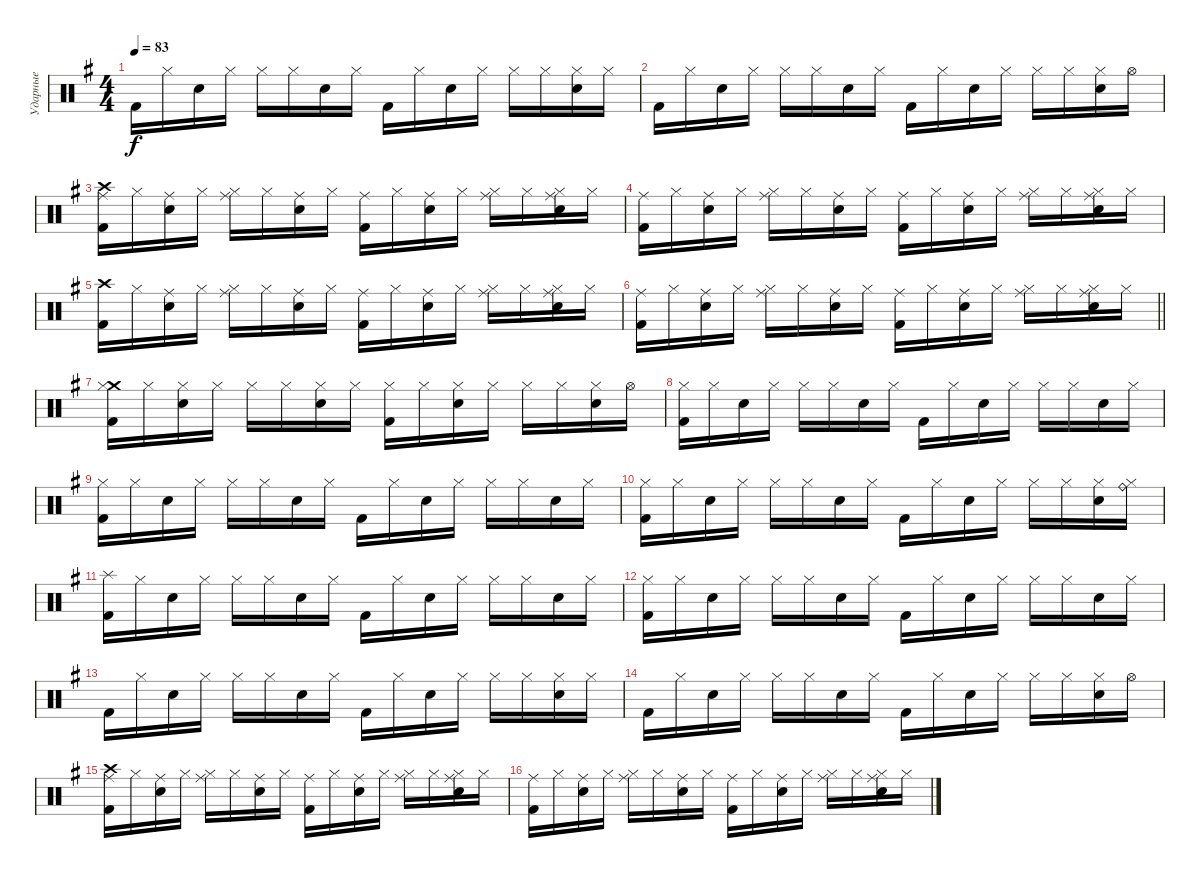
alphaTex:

\track ("Ударные" "Ударные") {instrument percussion}
\staff {score}
\articulation defaults
\ts (4 4)
\tempo 83
\clef neutral
\ks g "Kick (hit) 2".16{dy f} "Hi-Hat (closed)".16 "Snare (hit) 2".16 "Hi-Hat (closed)".16 "Hi-Hat (closed)".16 "Hi-Hat (closed)".16 "Snare (hit) 2".16 "Hi-Hat (closed)".16 "Kick (hit) 2".16 "Hi-Hat (closed)".16 "Snare (hit) 2".16 "Hi-Hat (closed)".16 "Hi-Hat (closed)".16 "Hi-Hat (closed)".16
("Hi-Hat (closed)" "Snare (hit) 2").16 "Hi-Hat (closed)".16 |
"Kick (hit) 2".16 "Hi-Hat (closed)".16 "Snare (hit) 2".16 "Hi-Hat (closed)".16 "Hi-Hat (closed)".16 "Hi-Hat (closed)".16 "Snare (hit) 2".16 "Hi-Hat (closed)".16 "Kick (hit) 2".16 "Hi-Hat (closed)".16 "Snare (hit) 2".16 "Hi-Hat (closed)".16 "Hi-Hat (closed)".16 "Hi-Hat (closed)".16 ("Hi-Hat (closed)" "Snare (hit) 2").16 "Hi-Hat (open)".16 |
("Ride (middle)" "Crash high (hit)" "Kick (hit) 2").16 "Hi-Hat (closed)".16 ("Ride (middle)" "Snare (hit) 2").16 "Hi-Hat (closed)".16 ("Ride (middle)" "Hi-Hat (closed)").16 "Hi-Hat (closed)".16 ("Ride (middle)" "Snare (hit) 2").16 "Hi-Hat (closed)".16 ("Ride (middle)" "Kick (hit) 2").16 "Hi-Hat (closed)".16 ("Ride (middle)" "Snare (hit) 2").16 "Hi-Hat (closed)".16 ("Ride (middle)" "Hi-Hat (closed)").16 "Hi-Hat (closed)".16 ("Ride (middle)" "Hi-Hat (closed)" "Snare (hit) 2").16 "Hi-Hat (closed)".16 |
("Ride (middle)" "Kick (hit) 2").16 "Hi-Hat (closed)".16 ("Ride (middle)" "Snare (hit) 2").16 "Hi-Hat (closed)".16 ("Ride (middle)" "Hi-Hat (closed)").16 "Hi-Hat (closed)".16 ("Ride (middle)" "Snare (hit) 2").16 "Hi-Hat (closed)".16 ("Ride (middle)" "Kick (hit) 2").16 "Hi-Hat (closed)".16 ("Ride (middle)" "Snare (hit) 2").16 "Hi-Hat (closed)".16 ("Ride (middle)" "Hi-Hat (closed)").16 "Hi-Hat (closed)".16 ("Ride (middle)" "Hi-Hat (closed)" "Snare (hit) 2").16 "Hi-Hat (closed)".16 |
("Crash high (hit)" "Kick (hit) 2").16 "Hi-Hat (closed)".16 ("Ride (middle)" "Snare (hit) 2").16 "Hi-Hat (closed)".16 ("Ride (middle)" "Hi-Hat (closed)").16 "Hi-Hat (closed)".16 ("Ride (middle)" "Snare (hit) 2").16 "Hi-Hat (closed)".16 ("Ride (middle)" "Kick (hit) 2").16 "Hi-Hat (closed)".16 ("Ride (middle)" "Snare (hit) 2").16 "Hi-Hat (closed)".16 ("Ride (middle)" "Hi-Hat (closed)").16 "Hi-Hat (closed)".16 ("Ride (middle)" "Hi-Hat (closed)" "Snare (hit) 2").16 "Hi-Hat (closed)".16 |
\barLineRight lightlight
("Ride (middle)" "Kick (hit) 2").16 "Hi-Hat (closed)".16 ("Ride (middle)" "Snare (hit) 2").16 "Hi-Hat (closed)".16 ("Ride (middle)" "Hi-Hat (closed)").16 "Hi-Hat (closed)".16 ("Ride (middle)" "Snare (hit) 2").16 "Hi-Hat (closed)".16 ("Ride (middle)" "Kick (hit) 2").16 "Hi-Hat (closed)".16 ("Ride (middle)" "Snare (hit) 2").16 "Hi-Hat (closed)".16 ("Ride (middle)" "Hi-Hat (closed)").16 "Hi-Hat (closed)".16 ("Ride (middle)" "Hi-Hat (closed)" "Snare (hit) 2").16 "Hi-Hat (closed)".16 |
("Crash medium (hit)" "Hi-Hat (closed)" "Kick (hit) 2").16 "Hi-Hat (closed)".16 ("Hi-Hat (closed)" "Snare (hit) 2").16 "Hi-Hat (closed)".16 "Hi-Hat (closed)".16 "Hi-Hat (closed)".16 ("Hi-Hat (closed)" "Snare (hit) 2").16 "Hi-Hat (closed)".16 ("Hi-Hat (closed)" "Kick (hit) 2").16 "Hi-Hat (closed)".16 ("Hi-Hat (closed)" "Snare (hit) 2").16 "Hi-Hat (closed)".16 "Hi-Hat (closed)".16 "Hi-Hat (closed)".16 ("Hi-Hat (closed)" "Snare (hit) 2").16 "Hi-Hat (open)".16 |
("Hi-Hat (closed)" "Kick (hit) 2").16 "Hi-Hat (closed)".16 "Snare (hit) 2".16 "Hi-Hat (closed)".16 "Hi-Hat (closed)".16 "Hi-Hat (closed)".16 "Snare (hit) 2".16 "Hi-Hat (closed)".16 "Kick (hit) 2".16 "Hi-Hat (closed)".16 "Snare (hit) 2".16 "Hi-Hat (closed)".16 "Hi-Hat (closed)".16 "Hi-Hat (closed)".16 "Snare (hit) 2".16 "Hi-Hat (closed)".16 |
("Hi-Hat (closed)" "Kick (hit) 2").16 "Hi-Hat (closed)".16 "Snare (hit) 2".16 "Hi-Hat (closed)".16 "Hi-Hat (closed)".16 "Hi-Hat (closed)".16 "Snare (hit) 2".16 "Hi-Hat (closed)".16 "Kick (hit) 2".16 "Hi-Hat (closed)".16 "Snare (hit) 2".16 "Hi-Hat (closed)".16 "Hi-Hat (closed)".16 "Hi-Hat (closed)".16 "Snare (hit) 2".16 "Hi-Hat (closed)".16 |
("Hi-Hat (closed)" "Kick (hit) 2").16 "Hi-Hat (closed)".16 "Snare (hit) 2".16 "Hi-Hat (closed)".16 "Hi-Hat (closed)".16 "Hi-Hat (closed)".16 "Snare (hit) 2".16 "Hi-Hat (closed)".16 "Kick (hit) 2".16 "Hi-Hat (closed)".16 "Snare (hit) 2".16 "Hi-Hat (closed)".16 "Hi-Hat (closed)".16 "Hi-Hat (closed)".16 ("Hi-Hat (closed)" "Snare (hit) 2").16 ("Ride (bell)" "Hi-Hat (closed)").16 |
("Splash (hit)" "Kick (hit) 2").16 "Hi-Hat (closed)".16 "Snare (hit) 2".16 "Hi-Hat (closed)".16 "Hi-Hat (closed)".16 "Hi-Hat (closed)".16 "Snare (hit) 2".16 "Hi-Hat (closed)".16 "Kick (hit) 2".16 "Hi-Hat (closed)".16 "Snare (hit) 2".16 "Hi-Hat (closed)".16 "Hi-Hat (closed)".16 "Hi-Hat (closed)".16 "Snare (hit) 2".16 "Hi-Hat (closed)".16 |
("Hi-Hat (closed)" "Kick (hit) 2").16 "Hi-Hat (closed)".16 "Snare (hit) 2".16 "Hi-Hat (closed)".16 "Hi-Hat (closed)".16 "Hi-Hat (closed)".16 "Snare (hit) 2".16 "Hi-Hat (closed)".16 "Kick (hit) 2".16 "Hi-Hat (closed)".16 "Snare (hit) 2".16 "Hi-Hat (closed)".16 "Hi-Hat (closed)".16 "Hi-Hat (closed)".16 "Snare (hit) 2".16 "Hi-Hat (closed)".16 |
"Kick (hit) 2".16 "Hi-Hat (closed)".16 "Snare (hit) 2".16 "Hi-Hat (closed)".16 "Hi-Hat (closed)".16 "Hi-Hat (closed)".16 "Snare (hit) 2".16 "Hi-Hat (closed)".16 "Kick (hit) 2".16 "Hi-Hat (closed)".16 "Snare (hit) 2".16 "Hi-Hat (closed)".16 "Hi-Hat (closed)".16 "Hi-Hat (closed)".16 ("Hi-Hat (closed)" "Snare (hit) 2").16 "Hi-Hat (closed)".16 |
"Kick (hit) 2".16 "Hi-Hat (closed)".16 "Snare (hit) 2".16 "Hi-Hat (closed)".16 "Hi-Hat (closed)".16 "Hi-Hat (closed)".16 "Snare (hit) 2".16 "Hi-Hat (closed)".16 "Kick (hit) 2".16 "Hi-Hat (closed)".16 "Snare (hit) 2".16 "Hi-Hat (closed)".16 "Hi-Hat (closed)".16 "Hi-Hat (closed)".16 ("Hi-Hat (closed)" "Snare (hit) 2").16 "Hi-Hat (open)".16 |
("Ride (middle)" "Crash high (hit)" "Kick (hit) 2").16 "Hi-Hat (closed)".16 ("Ride (middle)" "Snare (hit) 2").16 "Hi-Hat (closed)".16 ("Ride (middle)" "Hi-Hat (closed)").16 "Hi-Hat (closed)".16 ("Ride (middle)" "Snare (hit) 2").16 "Hi-Hat (closed)".16 ("Ride (middle)" "Kick (hit) 2").16 "Hi-Hat (closed)".16 ("Ride (middle)" "Snare (hit) 2").16 "Hi-Hat (closed)".16 ("Ride (middle)" "Hi-Hat (closed)").16 "Hi-Hat (closed)".16 ("Ride (middle)" "Hi-Hat (closed)" "Snare (hit) 2").16 "Hi-Hat (closed)".16 |
("Ride (middle)" "Kick (hit) 2").16 "Hi-Hat (closed)".16 ("Ride (middle)" "Snare (hit) 2").16 "Hi-Hat (closed)".16 ("Ride (middle)" "Hi-Hat (closed)").16 "Hi-Hat (closed)".16 ("Ride (middle)" "Snare (hit) 2").16 "Hi-Hat (closed)".16 ("Ride (middle)" "Kick (hit) 2").16 "Hi-Hat (closed)".16 ("Ride (middle)" "Snare (hit) 2").16 "Hi-Hat (closed)".16 ("Ride (middle)" "Hi-Hat (closed)").16 "Hi-Hat (closed)".16 ("Ride (middle)" "Hi-Hat (closed)" "Snare (hit) 2").16 "Hi-Hat (closed)".16
